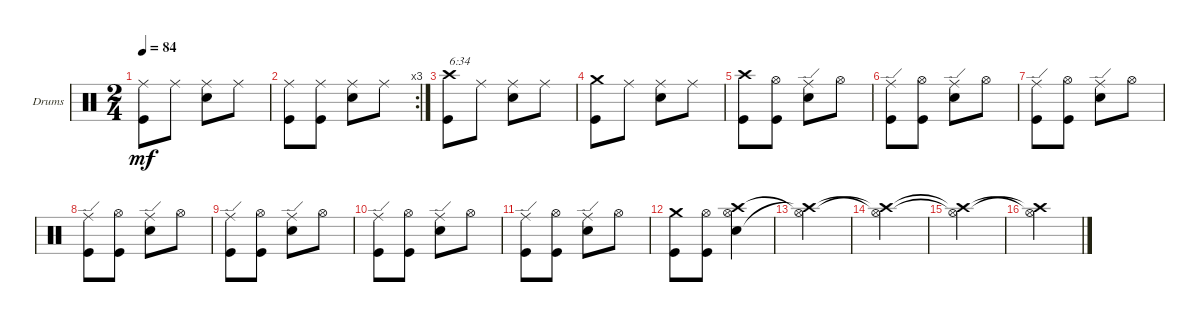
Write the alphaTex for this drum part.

\bracketExtendMode groupsimilarinstruments
\firstSystemTrackNameOrientation horizontal
\otherSystemsTrackNameOrientation horizontal
\track ("Drumkit" "Drums") {instrument percussion}
\staff {score}
\articulation defaults
\ts (2 4)
\tempo 84
\clef neutral
\scale
0.333333
\ks c
("Kick (hit)" "Ride (middle)").8{dy mf} "Ride (middle)".8 ("Ride (middle)" "Snare (hit) 2").8 "Ride (middle)".8 |
\rc 3
\scale
0.355932 ("Kick (hit)" "Ride (middle)").8 ("Kick (hit)" "Ride (middle)").8 ("Ride (middle)" "Snare (hit) 2").8 "Ride (middle)".8 |
\scale
0.322034 ("Kick (hit)" "Crash high (hit)").8{txt "6:34"} "Ride (middle)".8 ("Ride (middle)" "Snare (hit) 2").8 "Ride (middle)".8 |
\scale
0.322034 ("Crash medium (hit)" "Kick (hit)").8 "Ride (middle)".8 ("Ride (middle)" "Snare (hit) 2").8 "Ride (middle)".8 |
\scale
0.333333 ("Crash high (hit)" "Kick (hit)").8 ("Kick (hit)" "Hi-Hat (open)").8 ("Ride (edge)" "Snare (hit) 2").8 "Hi-Hat (open)".8 |
\scale
0.333333 ("Ride (edge)" "Kick (hit)").8 ("Kick (hit)" "Hi-Hat (open)").8 ("Ride (edge)" "Snare (hit) 2").8 "Hi-Hat (open)".8 |
\scale
0.333333 ("Ride (edge)" "Kick (hit)").8 ("Hi-Hat (open)" "Kick (hit)").8 ("Ride (edge)" "Snare (hit) 2").8 "Hi-Hat (open)".8 |
\scale
0.333333 ("Ride (edge)" "Kick (hit)").8 ("Hi-Hat (open)" "Kick (hit)").8 ("Ride (edge)" "Snare (hit) 2").8 "Hi-Hat (open)".8 |
\scale
0.333333 ("Ride (edge)" "Kick (hit)").8 ("Hi-Hat (open)" "Kick (hit)").8 ("Ride (edge)" "Snare (hit) 2").8 "Hi-Hat (open)".8 |
\scale
0.333333 ("Ride (edge)" "Kick (hit)").8 ("Hi-Hat (open)" "Kick (hit)").8 ("Ride (edge)" "Snare (hit) 2").8 "Hi-Hat (open)".8 |
\scale
0.333333 ("Kick (hit)" "Ride (edge)").8 ("Kick (hit)" "Hi-Hat (open)").8 ("Snare (hit) 2" "Ride (edge)").8 "Hi-Hat (open)".8 |
\scale
0.333333 ("Kick (hit)" "Crash medium (hit)").8 ("Kick (hit)" "Hi-Hat (open)").8 ("Snare (hit) 2" "Crash high (hit)" "Hi-Hat (open)").4 |
\scale
0.333333 ("Crash high (hit)"{t} "Hi-Hat (open)"{t}).2 |
\scale
0.333333 ("Hi-Hat (open)"{t} "Crash high (hit)"{t}).2 |
\scale
0.333333 ("Hi-Hat (open)"{t} "Crash high (hit)"{t}).2 |
\scale
0.333333 ("Crash high (hit)"{t} "Hi-Hat (open)"{t}).2
